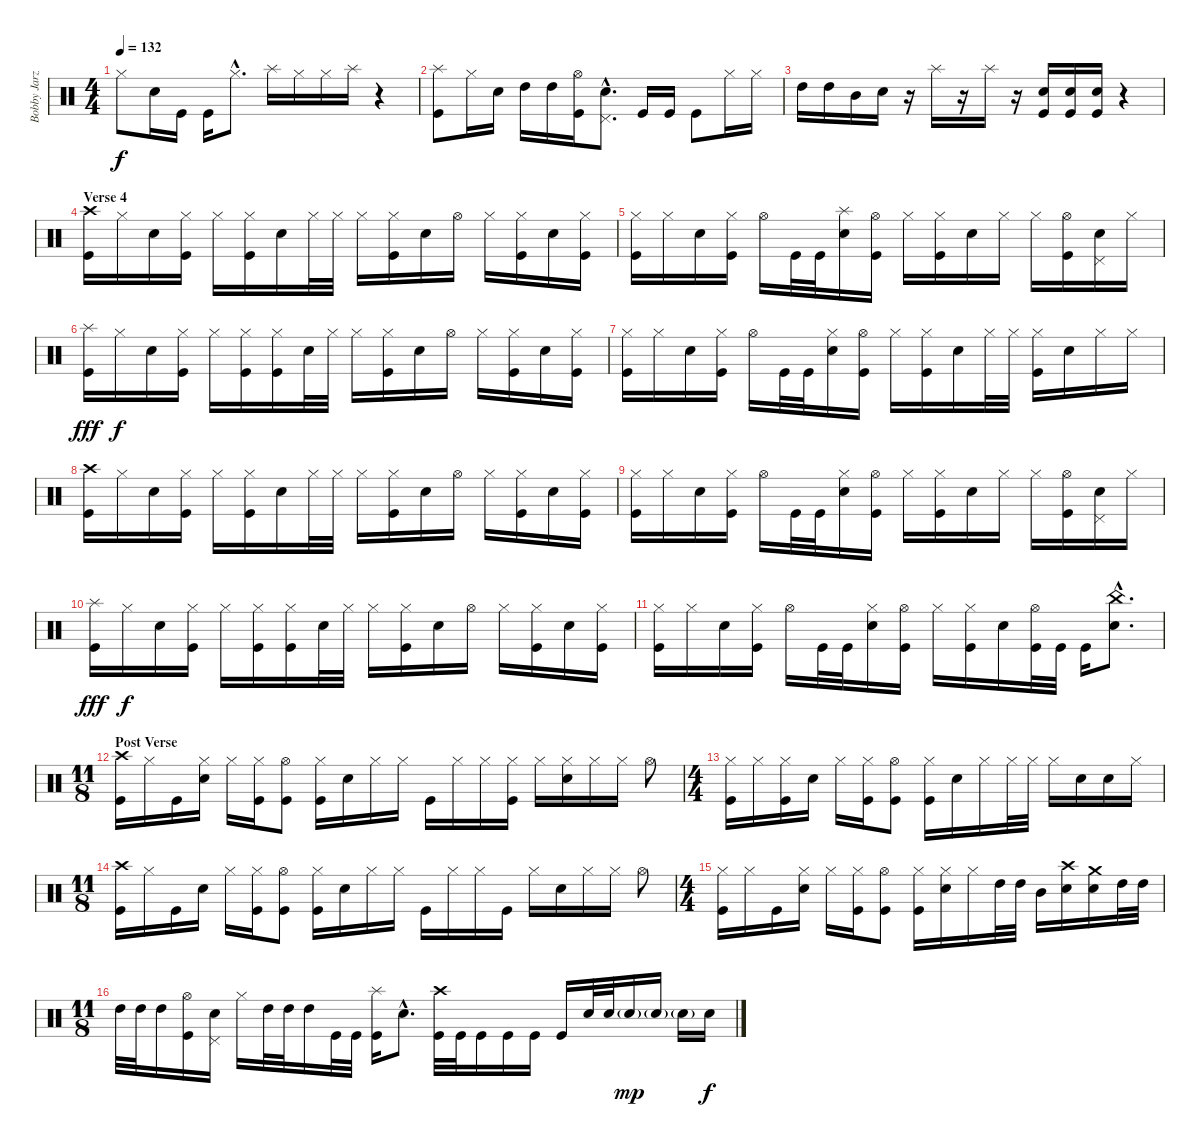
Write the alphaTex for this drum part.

\track ("Bobby Jarzombek" "Bobby Jarz") {instrument percussion}
\staff {score}
\articulation defaults
\ts (4 4)
\tempo 132
\clef neutral
\ks c "Hi-Hat (closed)".8{dy f} "Electric Snare (hit)".16 "Kick (hit)".16 "Kick (hit)".16 "Hi-Hat (closed)"{hac}.8{d} "Splash (hit)".16 "Hi-Hat (closed)".16 "Hi-Hat (closed)".16 "Splash (hit)".16
r.4 |
("Splash (hit)" "Kick (hit)").8 "Hi-Hat (closed)".16 "Electric Snare (hit)".16 "High Tom (hit)".16 "High Tom (hit)".16 ("Hi-Hat (open)" "Kick (hit)").16 ("Electric Snare (hit)"{hac} "Pedal Hi-Hat (hit)"{hac}).8{d} "Kick (hit)".16 "Kick (hit)".16 "Kick (hit)".8 "Hi-Hat (closed)".16 "Hi-Hat (closed)".16 |
"High Tom (hit)".16 "High Tom (hit)".16 "Mid Tom (hit)".16 "Electric Snare (hit)".16 r.16 "Splash (hit)".16 r.16 "Splash (hit)".16 r.16 ("Electric Snare (hit)" "Kick (hit)").16 ("Electric Snare (hit)" "Kick (hit)").16 ("Electric Snare (hit)" "Kick (hit)").16 r.4 |
\section ("" "Verse 4")
("Crash high (hit)" "Kick (hit)").16 "Hi-Hat (closed)".16 "Electric Snare (hit)".16 ("Hi-Hat (closed)" "Kick (hit)").16 "Hi-Hat (closed)".16 ("Hi-Hat (closed)" "Kick (hit)").16 "Electric Snare (hit)".16 "Hi-Hat (closed)".32 "Hi-Hat (closed)".32 "Hi-Hat (closed)".16 ("Hi-Hat (closed)" "Kick (hit)").16 "Electric Snare (hit)".16 "Hi-Hat (open)".16 "Hi-Hat (closed)".16 ("Hi-Hat (closed)" "Kick (hit)").16 "Electric Snare (hit)".16 ("Hi-Hat (closed)" "Kick (hit)").16 |
("Hi-Hat (closed)" "Kick (hit)").16 "Hi-Hat (closed)".16 "Electric Snare (hit)".16 ("Hi-Hat (closed)" "Kick (hit)").16 "Hi-Hat (open)".16 "Kick (hit)".32 "Kick (hit)".32 ("Splash (hit)" "Electric Snare (hit)").16 ("Hi-Hat (open)" "Kick (hit)").16 "Hi-Hat (closed)".16 ("Hi-Hat (closed)" "Kick (hit)").16 "Electric Snare (hit)".16 "Hi-Hat (closed)".16 "Hi-Hat (closed)".16 ("Hi-Hat (open)" "Kick (hit)").16 ("Electric Snare (hit)" "Pedal Hi-Hat (hit)").16 "Hi-Hat (closed)".16 |
("Splash (hit)" "Kick (hit)").16{dy fff} "Hi-Hat (closed)".16{dy f} "Electric Snare (hit)".16 ("Hi-Hat (closed)" "Kick (hit)").16 "Hi-Hat (closed)".16 ("Hi-Hat (closed)" "Kick (hit)").16 ("Hi-Hat (closed)" "Kick (hit)").16 "Electric Snare (hit)".32 "Hi-Hat (closed)".32 "Hi-Hat (closed)".16 ("Hi-Hat (closed)" "Kick (hit)").16 "Electric Snare (hit)".16 "Hi-Hat (open)".16 "Hi-Hat (closed)".16 ("Hi-Hat (closed)" "Kick (hit)").16 "Electric Snare (hit)".16 ("Hi-Hat (closed)" "Kick (hit)").16 |
("Hi-Hat (closed)" "Kick (hit)").16 "Hi-Hat (closed)".16 "Electric Snare (hit)".16 ("Hi-Hat (closed)" "Kick (hit)").16 "Hi-Hat (open)".16 "Kick (hit)".32 "Kick (hit)".32 ("Hi-Hat (closed)" "Electric Snare (hit)").16 ("Hi-Hat (open)" "Kick (hit)").16 "Hi-Hat (closed)".16 ("Hi-Hat (closed)" "Kick (hit)").16 "Electric Snare (hit)".16 "Hi-Hat (closed)".32 "Hi-Hat (closed)".32 ("Hi-Hat (closed)" "Kick (hit)").16 "Electric Snare (hit)".16 "Hi-Hat (closed)".16 "Hi-Hat (closed)".16 |
("Crash high (hit)" "Kick (hit)").16 "Hi-Hat (closed)".16 "Electric Snare (hit)".16 ("Hi-Hat (closed)" "Kick (hit)").16 "Hi-Hat (closed)".16 ("Hi-Hat (closed)" "Kick (hit)").16 "Electric Snare (hit)".16 "Hi-Hat (closed)".32 "Hi-Hat (closed)".32 "Hi-Hat (closed)".16 ("Hi-Hat (closed)" "Kick (hit)").16 "Electric Snare (hit)".16 "Hi-Hat (open)".16 "Hi-Hat (closed)".16 ("Hi-Hat (closed)" "Kick (hit)").16 "Electric Snare (hit)".16 ("Hi-Hat (closed)" "Kick (hit)").16 |
("Hi-Hat (closed)" "Kick (hit)").16 "Hi-Hat (closed)".16 "Electric Snare (hit)".16 ("Hi-Hat (closed)" "Kick (hit)").16 "Hi-Hat (open)".16 "Kick (hit)".32 "Kick (hit)".32 ("Hi-Hat (closed)" "Electric Snare (hit)").16 ("Hi-Hat (open)" "Kick (hit)").16 "Hi-Hat (closed)".16 ("Hi-Hat (closed)" "Kick (hit)").16 "Electric Snare (hit)".16 "Hi-Hat (closed)".16 "Hi-Hat (closed)".16 ("Hi-Hat (open)" "Kick (hit)").16 ("Electric Snare (hit)" "Pedal Hi-Hat (hit)").16 "Hi-Hat (closed)".16 |
("Splash (hit)" "Kick (hit)").16{dy fff} "Hi-Hat (closed)".16{dy f} "Electric Snare (hit)".16 ("Hi-Hat (closed)" "Kick (hit)").16 "Hi-Hat (closed)".16 ("Hi-Hat (closed)" "Kick (hit)").16 ("Hi-Hat (closed)" "Kick (hit)").16 "Electric Snare (hit)".32 "Hi-Hat (closed)".32 "Hi-Hat (closed)".16 ("Hi-Hat (closed)" "Kick (hit)").16 "Electric Snare (hit)".16 "Hi-Hat (open)".16 "Hi-Hat (closed)".16 ("Hi-Hat (closed)" "Kick (hit)").16 "Electric Snare (hit)".16 ("Hi-Hat (closed)" "Kick (hit)").16 |
("Hi-Hat (closed)" "Kick (hit)").16 "Hi-Hat (closed)".16 "Electric Snare (hit)".16 ("Hi-Hat (closed)" "Kick (hit)").16 "Hi-Hat (open)".16 "Kick (hit)".32 "Kick (hit)".32 ("Hi-Hat (closed)" "Electric Snare (hit)").16 ("Hi-Hat (open)" "Kick (hit)").16 "Hi-Hat (closed)".16 ("Hi-Hat (closed)" "Kick (hit)").16 "Electric Snare (hit)".16 ("Hi-Hat (open)" "Kick (hit)").32 "Kick (hit)".32 "Kick (hit)".16 ("China (hit)"{hac} "Electric Snare (hit)"{hac}).8{d} |
\ts (11 8)
\section ("" "Post Verse")
("Crash high (hit)" "Kick (hit)").16 "Hi-Hat (closed)".16 "Kick (hit)".16 ("Hi-Hat (closed)" "Electric Snare (hit)").16 "Hi-Hat (closed)".16 ("Hi-Hat (closed)" "Kick (hit)").16 ("Hi-Hat (open)" "Kick (hit)").8 ("Hi-Hat (closed)" "Kick (hit)").16 "Electric Snare (hit)".16 "Hi-Hat (closed)".16 "Hi-Hat (closed)".16 "Kick (hit)".16 "Hi-Hat (closed)".16 "Hi-Hat (closed)".16 ("Hi-Hat (closed)" "Kick (hit)").16 "Hi-Hat (closed)".16 ("Hi-Hat (closed)" "Electric Snare (hit)").16 "Hi-Hat (closed)".16 "Hi-Hat (closed)".16 "Hi-Hat (open)".8 |
\ts (4 4)
("Hi-Hat (closed)" "Kick (hit)").16 "Hi-Hat (closed)".16 ("Hi-Hat (closed)" "Kick (hit)").16 "Electric Snare (hit)".16 "Hi-Hat (closed)".16 ("Hi-Hat (closed)" "Kick (hit)").16 ("Hi-Hat (open)" "Kick (hit)").8 ("Hi-Hat (closed)" "Kick (hit)").16 "Electric Snare (hit)".16 "Hi-Hat (closed)".16 "Hi-Hat (closed)".32 "Hi-Hat (closed)".32 "Hi-Hat (closed)".16 "Electric Snare (hit)".16 "Electric Snare (hit)".16 "Hi-Hat (closed)".16 |
\ts (11 8)
("Crash high (hit)" "Kick (hit)").16 "Hi-Hat (closed)".16 "Kick (hit)".16 "Electric Snare (hit)".16 "Hi-Hat (closed)".16 ("Hi-Hat (closed)" "Kick (hit)").16 ("Hi-Hat (open)" "Kick (hit)").8 ("Hi-Hat (closed)" "Kick (hit)").16 "Electric Snare (hit)".16 "Hi-Hat (closed)".16 "Hi-Hat (closed)".16 "Kick (hit)".16 "Hi-Hat (closed)".16 "Hi-Hat (closed)".16 "Kick (hit)".16 "Hi-Hat (closed)".16 "Electric Snare (hit)".16 "Hi-Hat (closed)".16 "Hi-Hat (closed)".16 "Hi-Hat (open)".8 |
\ts (4 4)
("Hi-Hat (closed)" "Kick (hit)").16 "Hi-Hat (closed)".16 "Kick (hit)".16 ("Hi-Hat (closed)" "Electric Snare (hit)").16 "Hi-Hat (closed)".16 ("Hi-Hat (closed)" "Kick (hit)").16 ("Hi-Hat (open)" "Kick (hit)").8 ("Hi-Hat (closed)" "Kick (hit)").16 ("Hi-Hat (closed)" "Electric Snare (hit)").16 "Hi-Hat (closed)".16 "High Tom (hit)".32 "High Tom (hit)".32 "Mid Tom (hit)".16 ("Crash high (hit)" "Electric Snare (hit)").16 ("Crash medium (hit)" "Electric Snare (hit)").16 "High Tom (hit)".32 "High Tom (hit)".32 |
\ts (11 8)
"High Tom (hit)".32 "High Tom (hit)".32 "High Tom (hit)".16 ("Hi-Hat (open)" "Kick (hit)").16 ("Electric Snare (hit)" "Pedal Hi-Hat (hit)").16 "Hi-Hat (closed)".16 "High Tom (hit)".32 "High Tom (hit)".32 "High Tom (hit)".16 "Kick (hit)".32 "Kick (hit)".32 ("Splash (hit)" "Kick (hit)").16 "Electric Snare (hit)"{hac}.8{d} ("Crash high (hit)" "Kick (hit)").32 "Kick (hit)".32 "Kick (hit)".16 "Kick (hit)".16 "Kick (hit)".16 "Kick (hit)".16 "Electric Snare (hit)".32 "Electric Snare (hit)".32 "Electric Snare (hit)"{g}.16{dy mp} "Electric Snare (hit)"{g}.16 "Electric Snare (hit)"{g}.16 "Electric Snare (hit)".16{dy f}
